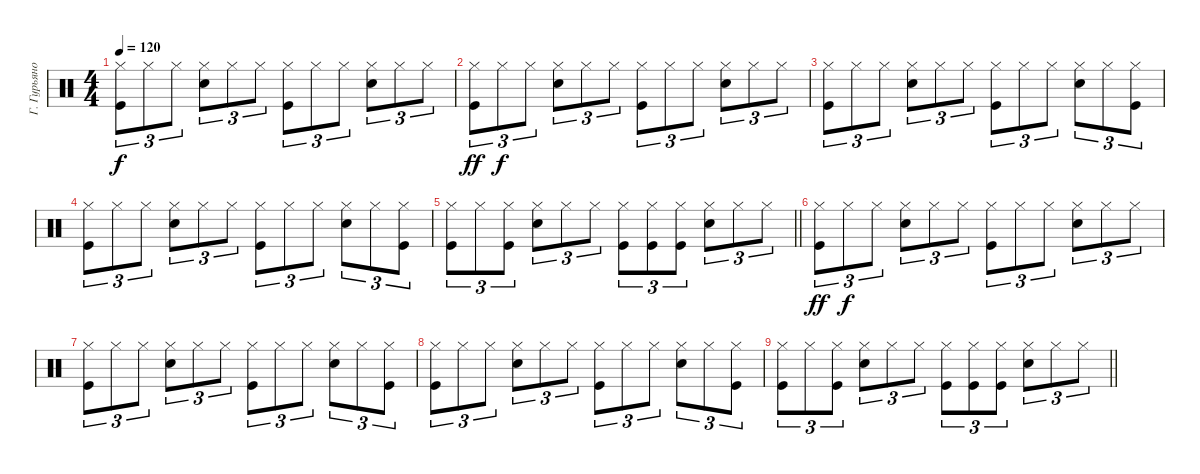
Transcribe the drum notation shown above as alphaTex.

\track ("Г. Гурьянов" "Г. Гурьяно") {instrument percussion}
\staff
\articulation defaults
\ts (4 4)
\tempo 120
\clef neutral
\ks c
("Hi-Hat (closed)" "Kick (hit)").8{tu (3 2) dy f} "Hi-Hat (closed)".8{tu (3 2)} "Hi-Hat (closed)".8{tu (3 2)} ("Hi-Hat (closed)" "Snare (hit) 2").8{tu (3 2)} "Hi-Hat (closed)".8{tu (3 2)} "Hi-Hat (closed)".8{tu (3 2)} ("Hi-Hat (closed)" "Kick (hit)").8{tu (3 2)} "Hi-Hat (closed)".8{tu (3 2)} "Hi-Hat (closed)".8{tu (3 2)} ("Hi-Hat (closed)" "Snare (hit) 2").8{tu (3 2)} "Hi-Hat (closed)".8{tu (3 2)} "Hi-Hat (closed)".8{tu (3 2)} |
("Hi-Hat (closed)" "Kick (hit)").8{tu (3 2) dy ff} "Hi-Hat (closed)".8{tu (3 2) dy f} "Hi-Hat (closed)".8{tu (3 2)} ("Hi-Hat (closed)" "Snare (hit) 2").8{tu (3 2)} "Hi-Hat (closed)".8{tu (3 2)} "Hi-Hat (closed)".8{tu (3 2)} ("Hi-Hat (closed)" "Kick (hit)").8{tu (3 2)} "Hi-Hat (closed)".8{tu (3 2)} "Hi-Hat (closed)".8{tu (3 2)} ("Hi-Hat (closed)" "Snare (hit) 2").8{tu (3 2)} "Hi-Hat (closed)".8{tu (3 2)} "Hi-Hat (closed)".8{tu (3 2)} |
("Hi-Hat (closed)" "Kick (hit)").8{tu (3 2)} "Hi-Hat (closed)".8{tu (3 2)} "Hi-Hat (closed)".8{tu (3 2)} ("Hi-Hat (closed)" "Snare (hit) 2").8{tu (3 2)} "Hi-Hat (closed)".8{tu (3 2)} "Hi-Hat (closed)".8{tu (3 2)} ("Hi-Hat (closed)" "Kick (hit)").8{tu (3 2)} "Hi-Hat (closed)".8{tu (3 2)} "Hi-Hat (closed)".8{tu (3 2)} ("Hi-Hat (closed)" "Snare (hit) 2").8{tu (3 2)} "Hi-Hat (closed)".8{tu (3 2)} ("Hi-Hat (closed)" "Kick (hit)").8{tu (3 2)} |
("Hi-Hat (closed)" "Kick (hit)").8{tu (3 2)} "Hi-Hat (closed)".8{tu (3 2)} "Hi-Hat (closed)".8{tu (3 2)} ("Hi-Hat (closed)" "Snare (hit) 2").8{tu (3 2)} "Hi-Hat (closed)".8{tu (3 2)} "Hi-Hat (closed)".8{tu (3 2)} ("Hi-Hat (closed)" "Kick (hit)").8{tu (3 2)} "Hi-Hat (closed)".8{tu (3 2)} "Hi-Hat (closed)".8{tu (3 2)} ("Hi-Hat (closed)" "Snare (hit) 2").8{tu (3 2)} "Hi-Hat (closed)".8{tu (3 2)} ("Hi-Hat (closed)" "Kick (hit)").8{tu (3 2)} |
\barLineRight lightlight
("Hi-Hat (closed)" "Kick (hit)").8{tu (3 2)} "Hi-Hat (closed)".8{tu (3 2)} ("Hi-Hat (closed)" "Kick (hit)").8{tu (3 2)} ("Hi-Hat (closed)" "Snare (hit) 2").8{tu (3 2)} "Hi-Hat (closed)".8{tu (3 2)} "Hi-Hat (closed)".8{tu (3 2)} ("Hi-Hat (closed)" "Kick (hit)").8{tu (3 2)} ("Hi-Hat (closed)" "Kick (hit)").8{tu (3 2)} ("Hi-Hat (closed)" "Kick (hit)").8{tu (3 2)} ("Hi-Hat (closed)" "Snare (hit) 2").8{tu (3 2)} "Hi-Hat (closed)".8{tu (3 2)} "Hi-Hat (closed)".8{tu (3 2)} |
("Hi-Hat (closed)" "Kick (hit)").8{tu (3 2) dy ff} "Hi-Hat (closed)".8{tu (3 2) dy f} "Hi-Hat (closed)".8{tu (3 2)} ("Hi-Hat (closed)" "Snare (hit) 2").8{tu (3 2)} "Hi-Hat (closed)".8{tu (3 2)} "Hi-Hat (closed)".8{tu (3 2)} ("Hi-Hat (closed)" "Kick (hit)").8{tu (3 2)} "Hi-Hat (closed)".8{tu (3 2)} "Hi-Hat (closed)".8{tu (3 2)} ("Hi-Hat (closed)" "Snare (hit) 2").8{tu (3 2)} "Hi-Hat (closed)".8{tu (3 2)} "Hi-Hat (closed)".8{tu (3 2)} |
("Hi-Hat (closed)" "Kick (hit)").8{tu (3 2)} "Hi-Hat (closed)".8{tu (3 2)} "Hi-Hat (closed)".8{tu (3 2)} ("Hi-Hat (closed)" "Snare (hit) 2").8{tu (3 2)} "Hi-Hat (closed)".8{tu (3 2)} "Hi-Hat (closed)".8{tu (3 2)} ("Hi-Hat (closed)" "Kick (hit)").8{tu (3 2)} "Hi-Hat (closed)".8{tu (3 2)} "Hi-Hat (closed)".8{tu (3 2)} ("Hi-Hat (closed)" "Snare (hit) 2").8{tu (3 2)} "Hi-Hat (closed)".8{tu (3 2)} ("Hi-Hat (closed)" "Kick (hit)").8{tu (3 2)} |
("Hi-Hat (closed)" "Kick (hit)").8{tu (3 2)} "Hi-Hat (closed)".8{tu (3 2)} "Hi-Hat (closed)".8{tu (3 2)} ("Hi-Hat (closed)" "Snare (hit) 2").8{tu (3 2)} "Hi-Hat (closed)".8{tu (3 2)} "Hi-Hat (closed)".8{tu (3 2)} ("Hi-Hat (closed)" "Kick (hit)").8{tu (3 2)} "Hi-Hat (closed)".8{tu (3 2)} "Hi-Hat (closed)".8{tu (3 2)} ("Hi-Hat (closed)" "Snare (hit) 2").8{tu (3 2)} "Hi-Hat (closed)".8{tu (3 2)} ("Hi-Hat (closed)" "Kick (hit)").8{tu (3 2)} |
\barLineRight lightlight
("Hi-Hat (closed)" "Kick (hit)").8{tu (3 2)} "Hi-Hat (closed)".8{tu (3 2)} ("Hi-Hat (closed)" "Kick (hit)").8{tu (3 2)} ("Hi-Hat (closed)" "Snare (hit) 2").8{tu (3 2)} "Hi-Hat (closed)".8{tu (3 2)} "Hi-Hat (closed)".8{tu (3 2)} ("Hi-Hat (closed)" "Kick (hit)").8{tu (3 2)} ("Hi-Hat (closed)" "Kick (hit)").8{tu (3 2)} ("Hi-Hat (closed)" "Kick (hit)").8{tu (3 2)} ("Hi-Hat (closed)" "Snare (hit) 2").8{tu (3 2)} "Hi-Hat (closed)".8{tu (3 2)} "Hi-Hat (closed)".8{tu (3 2)}
